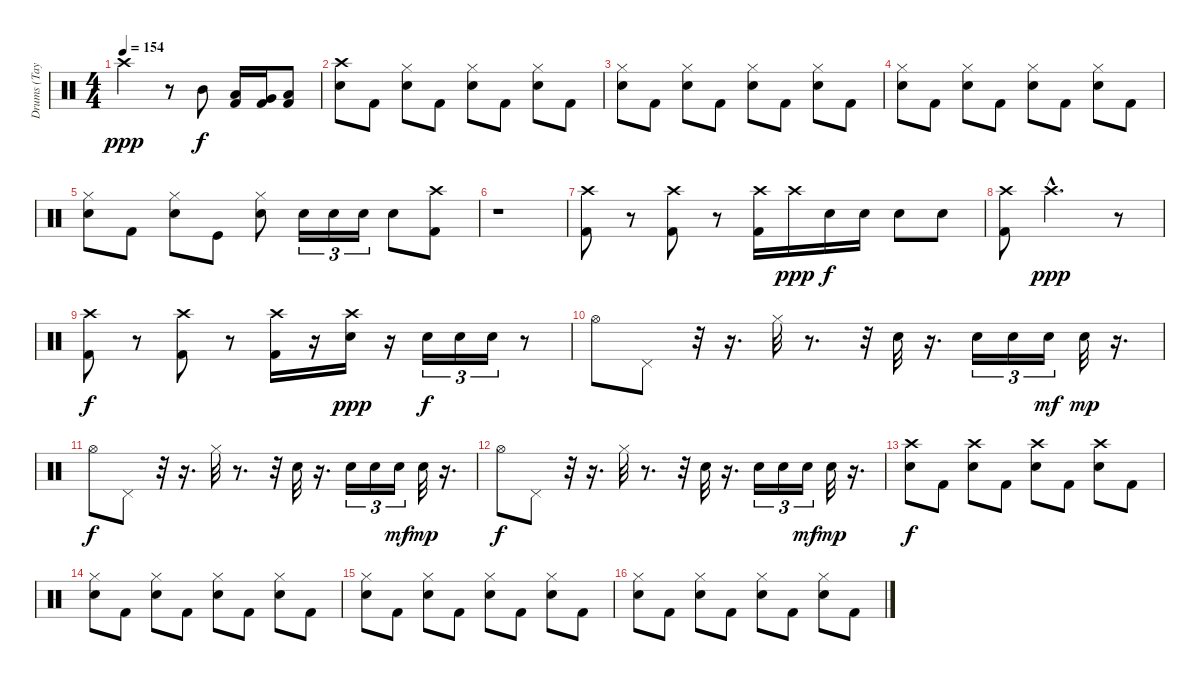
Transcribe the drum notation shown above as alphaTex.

\track ("Drums (Taylor)" "Drums (Tay") {instrument percussion}
\staff {score}
\articulation defaults
\ts (4 4)
\tempo 154
\clef neutral
\ks c "Crash high (hit)".2{dy ppp volume 16}
r.8 "Mid Tom (hit)".8{dy f} ("Kick (hit) 2" "Low Tom (hit)").16 ("Kick (hit) 2" "Very Low Tom (hit)").16 ("Kick (hit) 2" "Low Floor Tom (hit)").8 |
("Electric Snare (hit)" "Crash high (hit)").8 "Kick (hit) 2".8 ("Hi-Hat (closed)" "Electric Snare (hit)").8 "Kick (hit) 2".8 ("Hi-Hat (closed)" "Electric Snare (hit)").8 "Kick (hit) 2".8 ("Hi-Hat (closed)" "Electric Snare (hit)").8 "Kick (hit) 2".8 |
("Hi-Hat (closed)" "Electric Snare (hit)").8 "Kick (hit) 2".8 ("Hi-Hat (closed)" "Electric Snare (hit)").8 "Kick (hit) 2".8 ("Hi-Hat (closed)" "Electric Snare (hit)").8 "Kick (hit) 2".8 ("Hi-Hat (closed)" "Electric Snare (hit)").8 "Kick (hit) 2".8 |
("Hi-Hat (closed)" "Electric Snare (hit)").8 "Kick (hit) 2".8 ("Hi-Hat (closed)" "Electric Snare (hit)").8 "Kick (hit) 2".8 ("Hi-Hat (closed)" "Electric Snare (hit)").8 "Kick (hit) 2".8 ("Hi-Hat (closed)" "Electric Snare (hit)").8 "Kick (hit) 2".8 |
("Electric Snare (hit)" "Hi-Hat (closed)").8 "Kick (hit) 2".8 ("Electric Snare (hit)" "Hi-Hat (closed)").8 "Kick (hit)".8 ("Hi-Hat (closed)" "Electric Snare (hit)").8 "Electric Snare (hit)".16{tu (3 2)} "Electric Snare (hit)".16{tu (3 2)} "Electric Snare (hit)".16{tu (3 2)} "Electric Snare (hit)".8 ("Crash high (hit)" "Kick (hit) 2").8 |
r.1 |
("Kick (hit) 2" "Crash high (hit)").8{volume 16} r.8{volume 0} ("Kick (hit) 2" "Crash high (hit)").8{volume 16} r.8{volume 0} ("Crash high (hit)" "Kick (hit) 2").16{volume 16} "Crash high (hit)".16{dy ppp volume 0} "Electric Snare (hit)".16{dy f volume 16} "Electric Snare (hit)".16 "Electric Snare (hit)".8 "Electric Snare (hit)".8 |
("Kick (hit) 2" "Crash high (hit)").8 "Crash high (hit)"{hac}.2{d dy ppp volume 0} r.8 |
("Kick (hit) 2" "Crash high (hit)").8{dy f volume 16} r.8{volume 0} ("Kick (hit) 2" "Crash high (hit)").8{volume 16} r.8{volume 0} ("Crash high (hit)" "Kick (hit) 2").16{volume 16} r.16 ("Electric Snare (hit)" "Crash high (hit)").16{dy ppp volume 16} r.16 "Electric Snare (hit)".16{tu (3 2) dy f} "Electric Snare (hit)".16{tu (3 2)} "Electric Snare (hit)".16{tu (3 2)} r.8 |
"Hi-Hat (open)".8 "Pedal Hi-Hat (hit)".8 r.32 r.16{d} "Hi-Hat (closed)".32 r.8{d} r.32 "Electric Snare (hit)".32 r.16{d} "Electric Snare (hit)".16{tu (3 2)} "Electric Snare (hit)".16{tu (3 2)} "Electric Snare (hit)".16{tu (3 2) dy mf} "Electric Snare (hit)".32{dy mp} r.16{d} |
"Hi-Hat (open)".8{dy f} "Pedal Hi-Hat (hit)".8 r.32 r.16{d} "Hi-Hat (closed)".32 r.8{d} r.32 "Electric Snare (hit)".32 r.16{d} "Electric Snare (hit)".16{tu (3 2)} "Electric Snare (hit)".16{tu (3 2)} "Electric Snare (hit)".16{tu (3 2) dy mf} "Electric Snare (hit)".32{dy mp} r.16{d} |
"Hi-Hat (open)".8{dy f} "Pedal Hi-Hat (hit)".8 r.32 r.16{d} "Hi-Hat (closed)".32 r.8{d} r.32 "Electric Snare (hit)".32 r.16{d} "Electric Snare (hit)".16{tu (3 2)} "Electric Snare (hit)".16{tu (3 2)} "Electric Snare (hit)".16{tu (3 2) dy mf} "Electric Snare (hit)".32{dy mp} r.16{d} |
("Crash high (hit)" "Electric Snare (hit)").8{dy f} "Kick (hit) 2".8 ("Crash high (hit)" "Electric Snare (hit)").8 "Kick (hit) 2".8 ("Crash high (hit)" "Electric Snare (hit)").8 "Kick (hit) 2".8 ("Crash high (hit)" "Electric Snare (hit)").8 "Kick (hit) 2".8 |
("Hi-Hat (closed)" "Electric Snare (hit)").8 "Kick (hit) 2".8 ("Hi-Hat (closed)" "Electric Snare (hit)").8 "Kick (hit) 2".8 ("Hi-Hat (closed)" "Electric Snare (hit)").8 "Kick (hit) 2".8 ("Hi-Hat (closed)" "Electric Snare (hit)").8 "Kick (hit) 2".8 |
("Hi-Hat (closed)" "Electric Snare (hit)").8 "Kick (hit) 2".8 ("Hi-Hat (closed)" "Electric Snare (hit)").8 "Kick (hit) 2".8 ("Hi-Hat (closed)" "Electric Snare (hit)").8 "Kick (hit) 2".8 ("Hi-Hat (closed)" "Electric Snare (hit)").8 "Kick (hit) 2".8 |
("Hi-Hat (closed)" "Electric Snare (hit)").8 "Kick (hit) 2".8 ("Hi-Hat (closed)" "Electric Snare (hit)").8 "Kick (hit) 2".8 ("Hi-Hat (closed)" "Electric Snare (hit)").8 "Kick (hit) 2".8 ("Hi-Hat (closed)" "Electric Snare (hit)").8 "Kick (hit) 2".8
